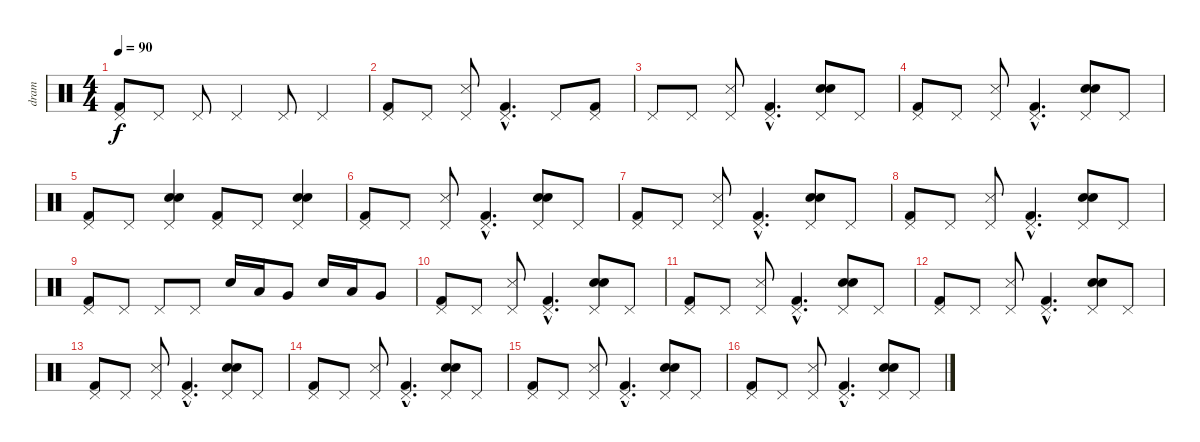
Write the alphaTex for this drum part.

\track ("dram" "dram") {instrument percussion}
\staff {score}
\articulation defaults
\ts (4 4)
\tempo 90
\clef neutral
\ks c
("Pedal Hi-Hat (hit)" "Kick (hit) 2").8{dy f} "Pedal Hi-Hat (hit)".8 "Pedal Hi-Hat (hit)".8 "Pedal Hi-Hat (hit)".4 "Pedal Hi-Hat (hit)".8 "Pedal Hi-Hat (hit)".4 |
("Pedal Hi-Hat (hit)" "Kick (hit) 2").8 "Pedal Hi-Hat (hit)".8 ("Pedal Hi-Hat (hit)" "Snare (side stick) 3").8 ("Pedal Hi-Hat (hit)"{hac} "Kick (hit) 2"{hac}).4{d} "Pedal Hi-Hat (hit)".8 ("Pedal Hi-Hat (hit)" "Kick (hit) 2").8 |
"Pedal Hi-Hat (hit)".8 "Pedal Hi-Hat (hit)".8 ("Pedal Hi-Hat (hit)" "Snare (side stick) 3").8 ("Pedal Hi-Hat (hit)"{hac} "Kick (hit) 2"{hac}).4{d} ("Pedal Hi-Hat (hit)" "Electric Snare (hit)" "Hand Clap (hit)").8 "Pedal Hi-Hat (hit)".8 |
("Pedal Hi-Hat (hit)" "Kick (hit) 2").8 "Pedal Hi-Hat (hit)".8 ("Pedal Hi-Hat (hit)" "Snare (side stick) 3").8 ("Pedal Hi-Hat (hit)"{hac} "Kick (hit) 2"{hac}).4{d} ("Pedal Hi-Hat (hit)" "Electric Snare (hit)" "Hand Clap (hit)").8 "Pedal Hi-Hat (hit)".8 |
("Pedal Hi-Hat (hit)" "Kick (hit) 2").8 "Pedal Hi-Hat (hit)".8 ("Pedal Hi-Hat (hit)" "Electric Snare (hit)" "Hand Clap (hit)").4 ("Pedal Hi-Hat (hit)" "Kick (hit) 2").8 "Pedal Hi-Hat (hit)".8 ("Pedal Hi-Hat (hit)" "Electric Snare (hit)" "Hand Clap (hit)").4 |
("Pedal Hi-Hat (hit)" "Kick (hit) 2").8 "Pedal Hi-Hat (hit)".8 ("Pedal Hi-Hat (hit)" "Snare (side stick) 3").8 ("Pedal Hi-Hat (hit)"{hac} "Kick (hit) 2"{hac}).4{d} ("Pedal Hi-Hat (hit)" "Electric Snare (hit)" "Hand Clap (hit)").8 "Pedal Hi-Hat (hit)".8 |
("Pedal Hi-Hat (hit)" "Kick (hit) 2").8 "Pedal Hi-Hat (hit)".8 ("Pedal Hi-Hat (hit)" "Snare (side stick) 3").8 ("Pedal Hi-Hat (hit)"{hac} "Kick (hit) 2"{hac}).4{d} ("Pedal Hi-Hat (hit)" "Electric Snare (hit)" "Hand Clap (hit)").8 "Pedal Hi-Hat (hit)".8 |
("Pedal Hi-Hat (hit)" "Kick (hit) 2").8 "Pedal Hi-Hat (hit)".8 ("Pedal Hi-Hat (hit)" "Snare (side stick) 3").8 ("Pedal Hi-Hat (hit)"{hac} "Kick (hit) 2"{hac}).4{d} ("Pedal Hi-Hat (hit)" "Electric Snare (hit)" "Hand Clap (hit)").8 "Pedal Hi-Hat (hit)".8 |
("Pedal Hi-Hat (hit)" "Kick (hit) 2").8 "Pedal Hi-Hat (hit)".8 "Pedal Hi-Hat (hit)".8 "Pedal Hi-Hat (hit)".8 "Electric Snare (hit)".16 "Low Tom (hit)".16 "Very Low Tom (hit)".8 "Electric Snare (hit)".16 "Low Tom (hit)".16 "Very Low Tom (hit)".8 |
("Pedal Hi-Hat (hit)" "Kick (hit) 2").8 "Pedal Hi-Hat (hit)".8 ("Pedal Hi-Hat (hit)" "Snare (side stick) 3").8 ("Pedal Hi-Hat (hit)"{hac} "Kick (hit) 2"{hac}).4{d} ("Pedal Hi-Hat (hit)" "Electric Snare (hit)" "Hand Clap (hit)").8 "Pedal Hi-Hat (hit)".8 |
("Pedal Hi-Hat (hit)" "Kick (hit) 2").8 "Pedal Hi-Hat (hit)".8 ("Pedal Hi-Hat (hit)" "Snare (side stick) 3").8 ("Pedal Hi-Hat (hit)"{hac} "Kick (hit) 2"{hac}).4{d} ("Pedal Hi-Hat (hit)" "Electric Snare (hit)" "Hand Clap (hit)").8 "Pedal Hi-Hat (hit)".8 |
("Pedal Hi-Hat (hit)" "Kick (hit) 2").8 "Pedal Hi-Hat (hit)".8 ("Pedal Hi-Hat (hit)" "Snare (side stick) 3").8 ("Pedal Hi-Hat (hit)"{hac} "Kick (hit) 2"{hac}).4{d} ("Pedal Hi-Hat (hit)" "Electric Snare (hit)" "Hand Clap (hit)").8 "Pedal Hi-Hat (hit)".8 |
("Pedal Hi-Hat (hit)" "Kick (hit) 2").8 "Pedal Hi-Hat (hit)".8 ("Pedal Hi-Hat (hit)" "Snare (side stick) 3").8 ("Pedal Hi-Hat (hit)"{hac} "Kick (hit) 2"{hac}).4{d} ("Pedal Hi-Hat (hit)" "Electric Snare (hit)" "Hand Clap (hit)").8 "Pedal Hi-Hat (hit)".8 |
("Pedal Hi-Hat (hit)" "Kick (hit) 2").8 "Pedal Hi-Hat (hit)".8 ("Pedal Hi-Hat (hit)" "Snare (side stick) 3").8 ("Pedal Hi-Hat (hit)"{hac} "Kick (hit) 2"{hac}).4{d} ("Pedal Hi-Hat (hit)" "Electric Snare (hit)" "Hand Clap (hit)").8 "Pedal Hi-Hat (hit)".8 |
("Pedal Hi-Hat (hit)" "Kick (hit) 2").8 "Pedal Hi-Hat (hit)".8 ("Pedal Hi-Hat (hit)" "Snare (side stick) 3").8 ("Pedal Hi-Hat (hit)"{hac} "Kick (hit) 2"{hac}).4{d} ("Pedal Hi-Hat (hit)" "Electric Snare (hit)" "Hand Clap (hit)").8 "Pedal Hi-Hat (hit)".8 |
("Pedal Hi-Hat (hit)" "Kick (hit) 2").8 "Pedal Hi-Hat (hit)".8 ("Pedal Hi-Hat (hit)" "Snare (side stick) 3").8 ("Pedal Hi-Hat (hit)"{hac} "Kick (hit) 2"{hac}).4{d} ("Pedal Hi-Hat (hit)" "Electric Snare (hit)" "Hand Clap (hit)").8 "Pedal Hi-Hat (hit)".8
